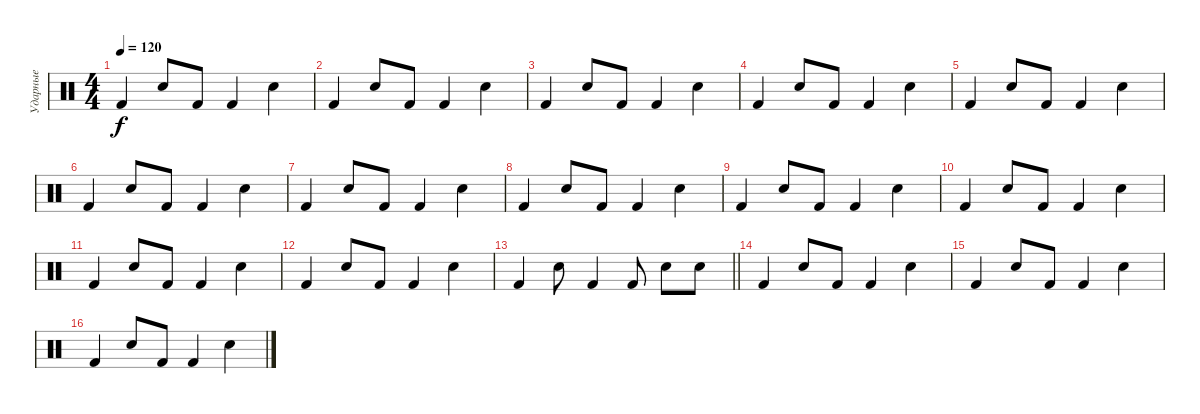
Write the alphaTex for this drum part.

\track ("Ударные" "Ударные") {instrument percussion}
\staff {score}
\articulation defaults
\ts (4 4)
\tempo 120
\clef neutral
\ks c "Kick (hit) 2".4{dy f} "Electric Snare (hit)".8 "Kick (hit) 2".8 "Kick (hit) 2".4 "Electric Snare (hit)".4
|
"Kick (hit) 2".4 "Electric Snare (hit)".8 "Kick (hit) 2".8 "Kick (hit) 2".4 "Electric Snare (hit)".4 |
"Kick (hit) 2".4 "Electric Snare (hit)".8 "Kick (hit) 2".8 "Kick (hit) 2".4 "Electric Snare (hit)".4 |
"Kick (hit) 2".4 "Electric Snare (hit)".8 "Kick (hit) 2".8 "Kick (hit) 2".4 "Electric Snare (hit)".4 |
"Kick (hit) 2".4 "Electric Snare (hit)".8 "Kick (hit) 2".8 "Kick (hit) 2".4 "Electric Snare (hit)".4 |
"Kick (hit) 2".4 "Electric Snare (hit)".8 "Kick (hit) 2".8 "Kick (hit) 2".4 "Electric Snare (hit)".4 |
"Kick (hit) 2".4 "Electric Snare (hit)".8 "Kick (hit) 2".8 "Kick (hit) 2".4 "Electric Snare (hit)".4 |
"Kick (hit) 2".4 "Electric Snare (hit)".8 "Kick (hit) 2".8 "Kick (hit) 2".4 "Electric Snare (hit)".4 |
"Kick (hit) 2".4 "Electric Snare (hit)".8 "Kick (hit) 2".8 "Kick (hit) 2".4 "Electric Snare (hit)".4 |
"Kick (hit) 2".4 "Electric Snare (hit)".8 "Kick (hit) 2".8 "Kick (hit) 2".4 "Electric Snare (hit)".4 |
"Kick (hit) 2".4 "Electric Snare (hit)".8 "Kick (hit) 2".8 "Kick (hit) 2".4 "Electric Snare (hit)".4 |
"Kick (hit) 2".4 "Electric Snare (hit)".8 "Kick (hit) 2".8 "Kick (hit) 2".4 "Electric Snare (hit)".4 |
\barLineRight lightlight "Kick (hit) 2".4 "Electric Snare (hit)".8 "Kick (hit) 2".4 "Kick (hit) 2".8 "Electric Snare (hit)".8 "Electric Snare (hit)".8
|
"Kick (hit) 2".4 "Electric Snare (hit)".8 "Kick (hit) 2".8 "Kick (hit) 2".4 "Electric Snare (hit)".4 |
"Kick (hit) 2".4 "Electric Snare (hit)".8 "Kick (hit) 2".8 "Kick (hit) 2".4 "Electric Snare (hit)".4 |
"Kick (hit) 2".4 "Electric Snare (hit)".8 "Kick (hit) 2".8 "Kick (hit) 2".4 "Electric Snare (hit)".4
